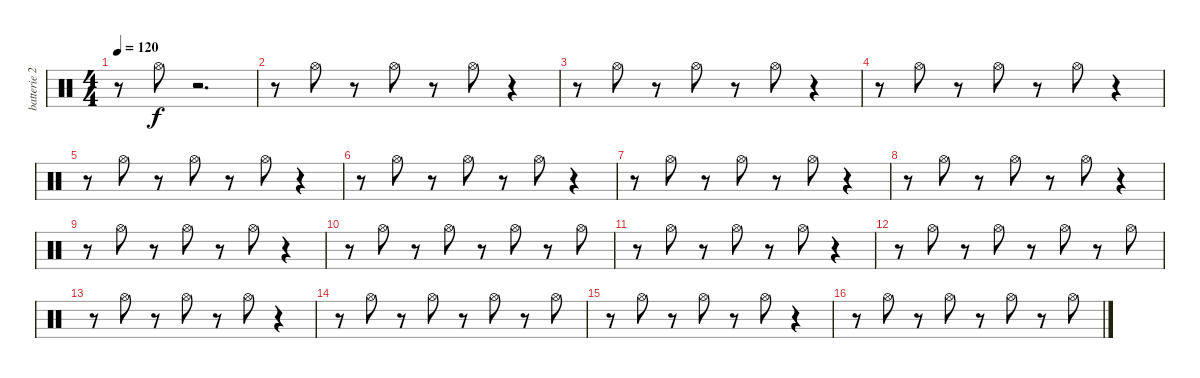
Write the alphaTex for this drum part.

\track ("batterie 2" "batterie 2") {instrument percussion}
\staff {score}
\articulation defaults
\ts (4 4)
\tempo 120
\clef neutral
\ks c
r.8{dy f} "Hi-Hat (open)".8 r.2{d} |
r.8 "Hi-Hat (open)".8 r.8 "Hi-Hat (open)".8 r.8 "Hi-Hat (open)".8 r.4 |
r.8 "Hi-Hat (open)".8 r.8 "Hi-Hat (open)".8 r.8 "Hi-Hat (open)".8 r.4 |
r.8 "Hi-Hat (open)".8 r.8 "Hi-Hat (open)".8 r.8 "Hi-Hat (open)".8 r.4 |
r.8 "Hi-Hat (open)".8 r.8 "Hi-Hat (open)".8 r.8 "Hi-Hat (open)".8 r.4 |
r.8 "Hi-Hat (open)".8 r.8 "Hi-Hat (open)".8 r.8 "Hi-Hat (open)".8 r.4 |
r.8 "Hi-Hat (open)".8 r.8 "Hi-Hat (open)".8 r.8 "Hi-Hat (open)".8 r.4 |
r.8 "Hi-Hat (open)".8 r.8 "Hi-Hat (open)".8 r.8 "Hi-Hat (open)".8 r.4 |
r.8 "Hi-Hat (open)".8 r.8 "Hi-Hat (open)".8 r.8 "Hi-Hat (open)".8 r.4 |
r.8 "Hi-Hat (open)".8 r.8 "Hi-Hat (open)".8 r.8 "Hi-Hat (open)".8 r.8 "Hi-Hat (open)".8 |
r.8 "Hi-Hat (open)".8 r.8 "Hi-Hat (open)".8 r.8 "Hi-Hat (open)".8 r.4 |
r.8 "Hi-Hat (open)".8 r.8 "Hi-Hat (open)".8 r.8 "Hi-Hat (open)".8 r.8 "Hi-Hat (open)".8 |
r.8 "Hi-Hat (open)".8 r.8 "Hi-Hat (open)".8 r.8 "Hi-Hat (open)".8 r.4 |
r.8 "Hi-Hat (open)".8 r.8 "Hi-Hat (open)".8 r.8 "Hi-Hat (open)".8 r.8 "Hi-Hat (open)".8 |
r.8 "Hi-Hat (open)".8 r.8 "Hi-Hat (open)".8 r.8 "Hi-Hat (open)".8 r.4 |
r.8 "Hi-Hat (open)".8 r.8 "Hi-Hat (open)".8 r.8 "Hi-Hat (open)".8 r.8 "Hi-Hat (open)".8
